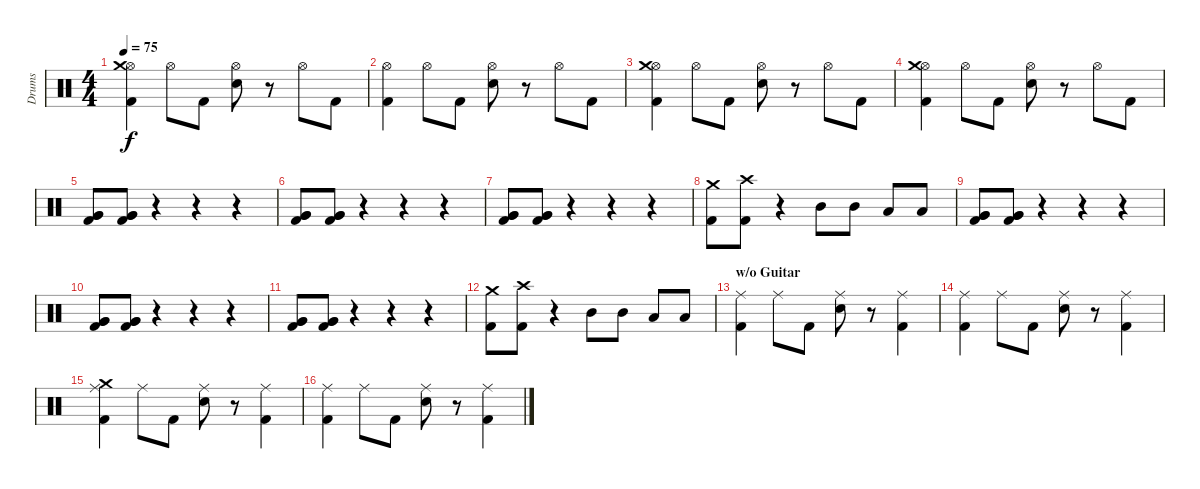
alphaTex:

\track ("Drums" "Drums") {instrument percussion}
\staff {score}
\articulation defaults
\ts (4 4)
\tempo 75
\clef neutral
\ks c
("Hi-Hat (open)" "Crash medium (hit)" "Kick (hit) 2").4{dy f} "Hi-Hat (open)".8 "Kick (hit) 2".8 ("Hi-Hat (open)" "Snare (hit) 2").8 r.8 "Hi-Hat (open)".8 "Kick (hit) 2".8 |
("Hi-Hat (open)" "Kick (hit) 2").4 "Hi-Hat (open)".8 "Kick (hit) 2".8 ("Hi-Hat (open)" "Snare (hit) 2").8 r.8 "Hi-Hat (open)".8 "Kick (hit) 2".8 |
("Hi-Hat (open)" "Crash medium (hit)" "Kick (hit) 2").4 "Hi-Hat (open)".8 "Kick (hit) 2".8 ("Hi-Hat (open)" "Snare (hit) 2").8 r.8 "Hi-Hat (open)".8 "Kick (hit) 2".8 |
("Hi-Hat (open)" "Crash medium (hit)" "Kick (hit) 2").4 "Hi-Hat (open)".8 "Kick (hit) 2".8 ("Hi-Hat (open)" "Snare (hit) 2").8 r.8 "Hi-Hat (open)".8 "Kick (hit) 2".8 |
("Very Low Tom (hit)" "Very Low Tom (hit)" "Kick (hit) 2").8 ("Very Low Tom (hit)" "Very Low Tom (hit)" "Kick (hit) 2").8 r.4 r.4 r.4 |
("Very Low Tom (hit)" "Very Low Tom (hit)" "Kick (hit) 2").8 ("Very Low Tom (hit)" "Very Low Tom (hit)" "Kick (hit) 2").8 r.4 r.4 r.4 |
("Very Low Tom (hit)" "Very Low Tom (hit)" "Kick (hit) 2").8 ("Very Low Tom (hit)" "Very Low Tom (hit)" "Kick (hit) 2").8 r.4 r.4 r.4 |
("Crash medium (hit)" "Kick (hit) 2").8 ("Crash high (hit)" "Kick (hit) 2").8 r.4 "Mid Tom (hit)".8 "Mid Tom (hit)".8 "Low Tom (hit)".8 "Low Tom (hit)".8 |
("Very Low Tom (hit)" "Very Low Tom (hit)" "Kick (hit) 2").8 ("Very Low Tom (hit)" "Very Low Tom (hit)" "Kick (hit) 2").8 r.4 r.4 r.4 |
("Very Low Tom (hit)" "Very Low Tom (hit)" "Kick (hit) 2").8 ("Very Low Tom (hit)" "Very Low Tom (hit)" "Kick (hit) 2").8 r.4 r.4 r.4 |
("Very Low Tom (hit)" "Very Low Tom (hit)" "Kick (hit) 2").8 ("Very Low Tom (hit)" "Very Low Tom (hit)" "Kick (hit) 2").8 r.4 r.4 r.4 |
("Crash medium (hit)" "Kick (hit) 2").8 ("Crash high (hit)" "Kick (hit) 2").8 r.4 "Mid Tom (hit)".8 "Mid Tom (hit)".8 "Low Tom (hit)".8 "Low Tom (hit)".8 |
\section ("" "w/o Guitar")
("Ride (middle)" "Kick (hit) 2").4 "Ride (middle)".8 "Kick (hit) 2".8 ("Ride (middle)" "Snare (hit) 2").8 r.8 ("Ride (middle)" "Kick (hit) 2").4 |
("Ride (middle)" "Kick (hit) 2").4 "Ride (middle)".8 "Kick (hit) 2".8 ("Ride (middle)" "Snare (hit) 2").8 r.8 ("Ride (middle)" "Kick (hit) 2").4 |
("Ride (middle)" "Crash medium (hit)" "Kick (hit) 2").4 "Ride (middle)".8 "Kick (hit) 2".8 ("Ride (middle)" "Snare (hit) 2").8 r.8 ("Ride (middle)" "Kick (hit) 2").4 |
("Ride (middle)" "Kick (hit) 2").4 "Ride (middle)".8 "Kick (hit) 2".8 ("Ride (middle)" "Snare (hit) 2").8 r.8 ("Ride (middle)" "Kick (hit) 2").4
